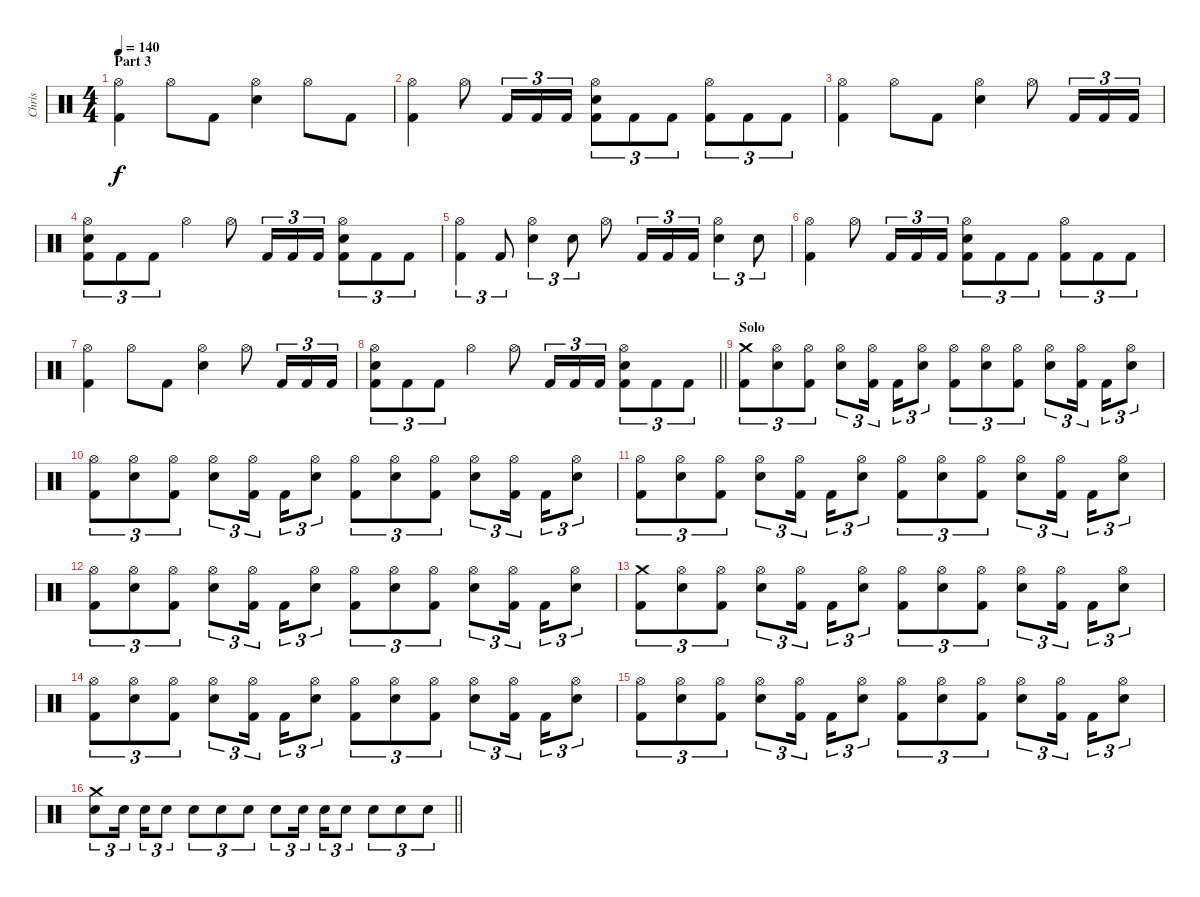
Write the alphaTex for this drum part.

\track ("Chris" "Chris") {instrument percussion}
\staff {score}
\articulation defaults
\ts (4 4)
\section ("" "Part 3")
\tempo 140
\clef neutral
\ks c
("Hi-Hat (open)" "Kick (hit) 2").4{dy f} "Hi-Hat (open)".8 "Kick (hit) 2".8 ("Snare (hit) 2" "Hi-Hat (open)").4 "Hi-Hat (open)".8 "Kick (hit) 2".8 |
("Hi-Hat (open)" "Kick (hit) 2").4 "Hi-Hat (open)".8 "Kick (hit) 2".16{tu (3 2)} "Kick (hit) 2".16{tu (3 2)} "Kick (hit) 2".16{tu (3 2)} ("Snare (hit) 2" "Hi-Hat (open)" "Kick (hit) 2").8{tu (3 2)} "Kick (hit) 2".8{tu (3 2)} "Kick (hit) 2".8{tu (3 2)} ("Hi-Hat (open)" "Kick (hit) 2").8{tu (3 2)} "Kick (hit) 2".8{tu (3 2)} "Kick (hit) 2".8{tu (3 2)} |
("Hi-Hat (open)" "Kick (hit) 2").4 "Hi-Hat (open)".8 "Kick (hit) 2".8 ("Snare (hit) 2" "Hi-Hat (open)").4 "Hi-Hat (open)".8 "Kick (hit) 2".16{tu (3 2)} "Kick (hit) 2".16{tu (3 2)} "Kick (hit) 2".16{tu (3 2)} |
("Snare (hit) 2" "Hi-Hat (open)" "Kick (hit) 2").8{tu (3 2)} "Kick (hit) 2".8{tu (3 2)} "Kick (hit) 2".8{tu (3 2)} "Hi-Hat (open)".4 "Hi-Hat (open)".8 "Kick (hit) 2".16{tu (3 2)} "Kick (hit) 2".16{tu (3 2)} "Kick (hit) 2".16{tu (3 2)} ("Snare (hit) 2" "Hi-Hat (open)" "Kick (hit) 2").8{tu (3 2)} "Kick (hit) 2".8{tu (3 2)} "Kick (hit) 2".8{tu (3 2)} |
("Hi-Hat (open)" "Kick (hit) 2").4{tu (3 2)} "Kick (hit) 2".8{tu (3 2)} ("Snare (hit) 2" "Hi-Hat (open)").4{tu (3 2)} "Snare (hit) 2".8{tu (3 2)} "Hi-Hat (open)".8 "Kick (hit) 2".16{tu (3 2)} "Kick (hit) 2".16{tu (3 2)} "Kick (hit) 2".16{tu (3 2)} ("Snare (hit) 2" "Hi-Hat (open)").4{tu (3 2)} "Snare (hit) 2".8{tu (3 2)} |
("Hi-Hat (open)" "Kick (hit) 2").4 "Hi-Hat (open)".8 "Kick (hit) 2".16{tu (3 2)} "Kick (hit) 2".16{tu (3 2)} "Kick (hit) 2".16{tu (3 2)} ("Snare (hit) 2" "Hi-Hat (open)" "Kick (hit) 2").8{tu (3 2)} "Kick (hit) 2".8{tu (3 2)} "Kick (hit) 2".8{tu (3 2)} ("Hi-Hat (open)" "Kick (hit) 2").8{tu (3 2)} "Kick (hit) 2".8{tu (3 2)} "Kick (hit) 2".8{tu (3 2)} |
("Hi-Hat (open)" "Kick (hit) 2").4 "Hi-Hat (open)".8 "Kick (hit) 2".8 ("Snare (hit) 2" "Hi-Hat (open)").4 "Hi-Hat (open)".8 "Kick (hit) 2".16{tu (3 2)} "Kick (hit) 2".16{tu (3 2)} "Kick (hit) 2".16{tu (3 2)} |
\barLineRight lightlight
("Snare (hit) 2" "Hi-Hat (open)" "Kick (hit) 2").8{tu (3 2)} "Kick (hit) 2".8{tu (3 2)} "Kick (hit) 2".8{tu (3 2)} "Hi-Hat (open)".4 "Hi-Hat (open)".8 "Kick (hit) 2".16{tu (3 2)} "Kick (hit) 2".16{tu (3 2)} "Kick (hit) 2".16{tu (3 2)} ("Snare (hit) 2" "Hi-Hat (open)" "Kick (hit) 2").8{tu (3 2)} "Kick (hit) 2".8{tu (3 2)} "Kick (hit) 2".8{tu (3 2)} |
\section ("" "Solo")
("Crash medium (hit)" "Kick (hit) 2").8{tu (3 2)} ("Snare (hit) 2" "Hi-Hat (open)").8{tu (3 2)} ("Hi-Hat (open)" "Kick (hit) 2").8{tu (3 2)} ("Snare (hit) 2" "Hi-Hat (open)").8{tu (3 2)} ("Hi-Hat (open)" "Kick (hit) 2").16{tu (3 2) beam splitsecondary} "Kick (hit) 2".16{tu (3 2)} ("Snare (hit) 2" "Hi-Hat (open)").8{tu (3 2)} ("Hi-Hat (open)" "Kick (hit) 2").8{tu (3 2)} ("Snare (hit) 2" "Hi-Hat (open)").8{tu (3 2)} ("Hi-Hat (open)" "Kick (hit) 2").8{tu (3 2)} ("Snare (hit) 2" "Hi-Hat (open)").8{tu (3 2)} ("Hi-Hat (open)" "Kick (hit) 2").16{tu (3 2) beam splitsecondary} "Kick (hit) 2".16{tu (3 2)} ("Snare (hit) 2" "Hi-Hat (open)").8{tu (3 2)} |
("Hi-Hat (open)" "Kick (hit) 2").8{tu (3 2)} ("Snare (hit) 2" "Hi-Hat (open)").8{tu (3 2)} ("Hi-Hat (open)" "Kick (hit) 2").8{tu (3 2)} ("Snare (hit) 2" "Hi-Hat (open)").8{tu (3 2)} ("Hi-Hat (open)" "Kick (hit) 2").16{tu (3 2) beam splitsecondary} "Kick (hit) 2".16{tu (3 2)} ("Snare (hit) 2" "Hi-Hat (open)").8{tu (3 2)} ("Hi-Hat (open)" "Kick (hit) 2").8{tu (3 2)} ("Snare (hit) 2" "Hi-Hat (open)").8{tu (3 2)} ("Hi-Hat (open)" "Kick (hit) 2").8{tu (3 2)} ("Snare (hit) 2" "Hi-Hat (open)").8{tu (3 2)} ("Hi-Hat (open)" "Kick (hit) 2").16{tu (3 2) beam splitsecondary} "Kick (hit) 2".16{tu (3 2)} ("Snare (hit) 2" "Hi-Hat (open)").8{tu (3 2)} |
("Hi-Hat (open)" "Kick (hit) 2").8{tu (3 2)} ("Snare (hit) 2" "Hi-Hat (open)").8{tu (3 2)} ("Hi-Hat (open)" "Kick (hit) 2").8{tu (3 2)} ("Snare (hit) 2" "Hi-Hat (open)").8{tu (3 2)} ("Hi-Hat (open)" "Kick (hit) 2").16{tu (3 2) beam splitsecondary} "Kick (hit) 2".16{tu (3 2)} ("Snare (hit) 2" "Hi-Hat (open)").8{tu (3 2)} ("Hi-Hat (open)" "Kick (hit) 2").8{tu (3 2)} ("Snare (hit) 2" "Hi-Hat (open)").8{tu (3 2)} ("Hi-Hat (open)" "Kick (hit) 2").8{tu (3 2)} ("Snare (hit) 2" "Hi-Hat (open)").8{tu (3 2)} ("Hi-Hat (open)" "Kick (hit) 2").16{tu (3 2) beam splitsecondary} "Kick (hit) 2".16{tu (3 2)} ("Snare (hit) 2" "Hi-Hat (open)").8{tu (3 2)} |
("Hi-Hat (open)" "Kick (hit) 2").8{tu (3 2)} ("Snare (hit) 2" "Hi-Hat (open)").8{tu (3 2)} ("Hi-Hat (open)" "Kick (hit) 2").8{tu (3 2)} ("Snare (hit) 2" "Hi-Hat (open)").8{tu (3 2)} ("Hi-Hat (open)" "Kick (hit) 2").16{tu (3 2) beam splitsecondary} "Kick (hit) 2".16{tu (3 2)} ("Snare (hit) 2" "Hi-Hat (open)").8{tu (3 2)} ("Hi-Hat (open)" "Kick (hit) 2").8{tu (3 2)} ("Snare (hit) 2" "Hi-Hat (open)").8{tu (3 2)} ("Hi-Hat (open)" "Kick (hit) 2").8{tu (3 2)} ("Snare (hit) 2" "Hi-Hat (open)").8{tu (3 2)} ("Hi-Hat (open)" "Kick (hit) 2").16{tu (3 2) beam splitsecondary} "Kick (hit) 2".16{tu (3 2)} ("Snare (hit) 2" "Hi-Hat (open)").8{tu (3 2)} |
("Crash medium (hit)" "Kick (hit) 2").8{tu (3 2)} ("Snare (hit) 2" "Hi-Hat (open)").8{tu (3 2)} ("Hi-Hat (open)" "Kick (hit) 2").8{tu (3 2)} ("Snare (hit) 2" "Hi-Hat (open)").8{tu (3 2)} ("Hi-Hat (open)" "Kick (hit) 2").16{tu (3 2) beam splitsecondary} "Kick (hit) 2".16{tu (3 2)} ("Snare (hit) 2" "Hi-Hat (open)").8{tu (3 2)} ("Hi-Hat (open)" "Kick (hit) 2").8{tu (3 2)} ("Snare (hit) 2" "Hi-Hat (open)").8{tu (3 2)} ("Hi-Hat (open)" "Kick (hit) 2").8{tu (3 2)} ("Snare (hit) 2" "Hi-Hat (open)").8{tu (3 2)} ("Hi-Hat (open)" "Kick (hit) 2").16{tu (3 2) beam splitsecondary} "Kick (hit) 2".16{tu (3 2)} ("Snare (hit) 2" "Hi-Hat (open)").8{tu (3 2)} |
("Hi-Hat (open)" "Kick (hit) 2").8{tu (3 2)} ("Snare (hit) 2" "Hi-Hat (open)").8{tu (3 2)} ("Hi-Hat (open)" "Kick (hit) 2").8{tu (3 2)} ("Snare (hit) 2" "Hi-Hat (open)").8{tu (3 2)} ("Hi-Hat (open)" "Kick (hit) 2").16{tu (3 2) beam splitsecondary} "Kick (hit) 2".16{tu (3 2)} ("Snare (hit) 2" "Hi-Hat (open)").8{tu (3 2)} ("Hi-Hat (open)" "Kick (hit) 2").8{tu (3 2)} ("Snare (hit) 2" "Hi-Hat (open)").8{tu (3 2)} ("Hi-Hat (open)" "Kick (hit) 2").8{tu (3 2)} ("Snare (hit) 2" "Hi-Hat (open)").8{tu (3 2)} ("Hi-Hat (open)" "Kick (hit) 2").16{tu (3 2) beam splitsecondary} "Kick (hit) 2".16{tu (3 2)} ("Snare (hit) 2" "Hi-Hat (open)").8{tu (3 2)} |
("Hi-Hat (open)" "Kick (hit) 2").8{tu (3 2)} ("Snare (hit) 2" "Hi-Hat (open)").8{tu (3 2)} ("Hi-Hat (open)" "Kick (hit) 2").8{tu (3 2)} ("Snare (hit) 2" "Hi-Hat (open)").8{tu (3 2)} ("Hi-Hat (open)" "Kick (hit) 2").16{tu (3 2) beam splitsecondary} "Kick (hit) 2".16{tu (3 2)} ("Snare (hit) 2" "Hi-Hat (open)").8{tu (3 2)} ("Hi-Hat (open)" "Kick (hit) 2").8{tu (3 2)} ("Snare (hit) 2" "Hi-Hat (open)").8{tu (3 2)} ("Hi-Hat (open)" "Kick (hit) 2").8{tu (3 2)} ("Snare (hit) 2" "Hi-Hat (open)").8{tu (3 2)} ("Hi-Hat (open)" "Kick (hit) 2").16{tu (3 2) beam splitsecondary} "Kick (hit) 2".16{tu (3 2)} ("Snare (hit) 2" "Hi-Hat (open)").8{tu (3 2)} |
\barLineRight lightlight
("Crash medium (hit)" "Snare (hit) 2").8{tu (3 2)} "Snare (hit) 2".16{tu (3 2) beam splitsecondary} "Snare (hit) 2".16{tu (3 2)} "Snare (hit) 2".8{tu (3 2)} "Snare (hit) 2".8{tu (3 2)} "Snare (hit) 2".8{tu (3 2)} "Snare (hit) 2".8{tu (3 2)} "Snare (hit) 2".8{tu (3 2)} "Snare (hit) 2".16{tu (3 2) beam splitsecondary} "Snare (hit) 2".16{tu (3 2)} "Snare (hit) 2".8{tu (3 2)} "Snare (hit) 2".8{tu (3 2)} "Snare (hit) 2".8{tu (3 2)} "Snare (hit) 2".8{tu (3 2)}
